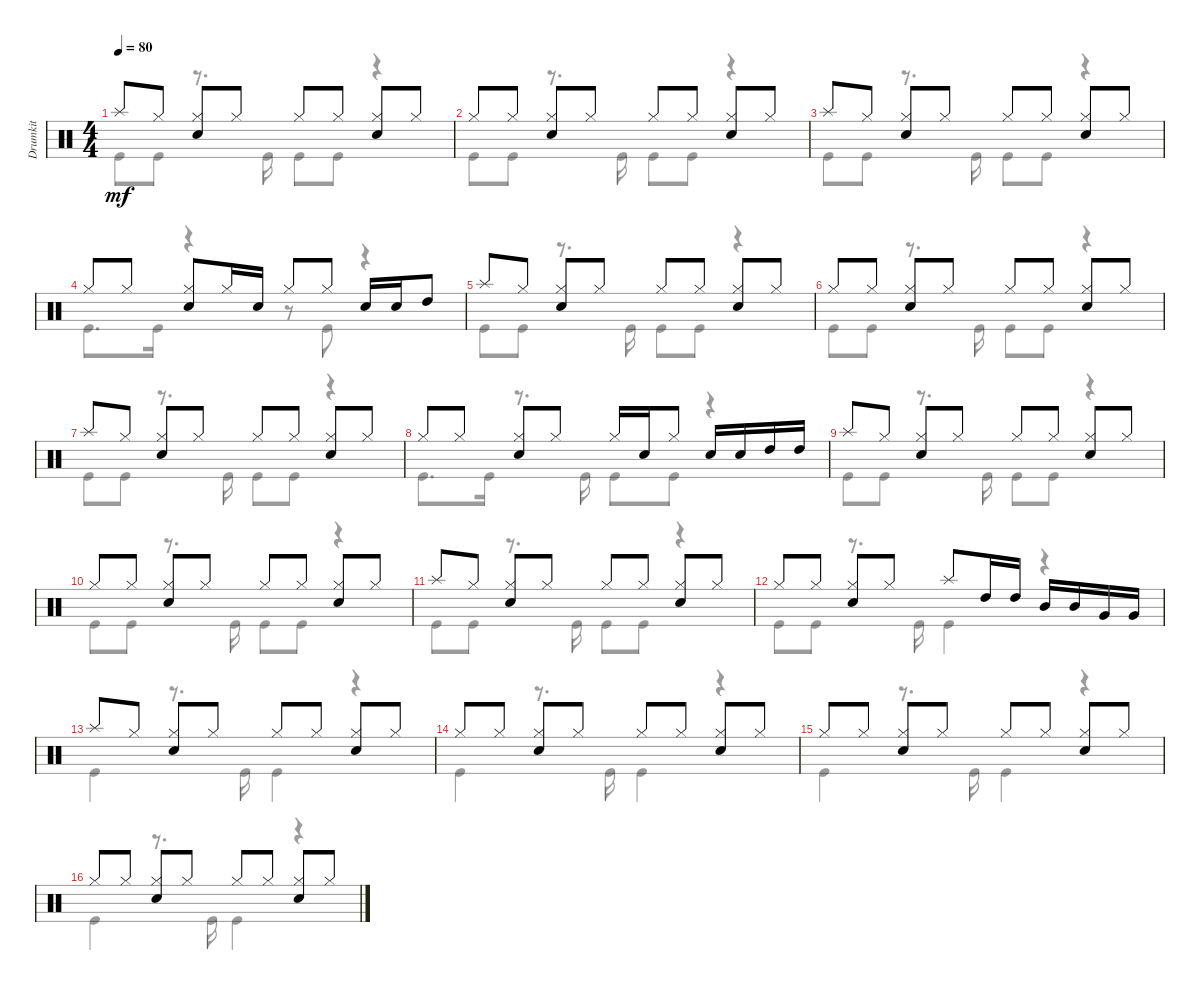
\track ("Drumkit" "Drumkit") {instrument percussion}
\staff {score}
\articulation defaults
\voice
\ts (4 4)
\tempo 80
\clef neutral
\ks c "Splash (hit)"{t}.8{dy mf} "Hi-Hat (closed)".8
("Hi-Hat (closed)" "Snare (hit) 2").8 "Hi-Hat (closed)".8 "Hi-Hat (closed)".8 "Hi-Hat (closed)".8 ("Hi-Hat (closed)" "Snare (hit) 2").8 "Hi-Hat (closed)".8 |
"Hi-Hat (closed)".8 "Hi-Hat (closed)".8 ("Hi-Hat (closed)" "Snare (hit) 2").8 "Hi-Hat (closed)".8 "Hi-Hat (closed)".8 "Hi-Hat (closed)".8 ("Hi-Hat (closed)" "Snare (hit) 2").8 "Hi-Hat (closed)".8 |
"Splash (hit)".8 "Hi-Hat (closed)".8 ("Hi-Hat (closed)" "Snare (hit) 2").8 "Hi-Hat (closed)".8 "Hi-Hat (closed)".8 "Hi-Hat (closed)".8 ("Hi-Hat (closed)" "Snare (hit) 2").8 "Hi-Hat (closed)".8 |
"Hi-Hat (closed)".8 "Hi-Hat (closed)".8 ("Hi-Hat (closed)" "Snare (hit) 2").8 "Hi-Hat (closed)".16 "Snare (hit) 2".16 "Hi-Hat (closed)".8 "Hi-Hat (closed)".8 "Snare (hit) 2".16 "Snare (hit) 2".16 "High Tom (hit)".8 |
"Splash (hit)".8 "Hi-Hat (closed)".8 ("Hi-Hat (closed)" "Snare (hit) 2").8 "Hi-Hat (closed)".8 "Hi-Hat (closed)".8 "Hi-Hat (closed)".8 ("Hi-Hat (closed)" "Snare (hit) 2").8 "Hi-Hat (closed)".8 |
"Hi-Hat (closed)".8 "Hi-Hat (closed)".8 ("Hi-Hat (closed)" "Snare (hit) 2").8 "Hi-Hat (closed)".8 "Hi-Hat (closed)".8 "Hi-Hat (closed)".8 ("Hi-Hat (closed)" "Snare (hit) 2").8 "Hi-Hat (closed)".8 |
"Splash (hit)".8 "Hi-Hat (closed)".8 ("Hi-Hat (closed)" "Snare (hit) 2").8 "Hi-Hat (closed)".8 "Hi-Hat (closed)".8 "Hi-Hat (closed)".8 ("Hi-Hat (closed)" "Snare (hit) 2").8 "Hi-Hat (closed)".8 |
"Hi-Hat (closed)".8 "Hi-Hat (closed)".8 ("Hi-Hat (closed)" "Snare (hit) 2").8 "Hi-Hat (closed)".8 "Hi-Hat (closed)".16 "Snare (hit) 2".16 "Hi-Hat (closed)".8 "Snare (hit) 2".16 "Snare (hit) 2".16 "High Tom (hit)".16 "High Tom (hit)".16 |
"Splash (hit)".8 "Hi-Hat (closed)".8 ("Hi-Hat (closed)" "Snare (hit) 2").8 "Hi-Hat (closed)".8 "Hi-Hat (closed)".8 "Hi-Hat (closed)".8 ("Hi-Hat (closed)" "Snare (hit) 2").8 "Hi-Hat (closed)".8 |
"Hi-Hat (closed)".8 "Hi-Hat (closed)".8 ("Hi-Hat (closed)" "Snare (hit) 2").8 "Hi-Hat (closed)".8 "Hi-Hat (closed)".8 "Hi-Hat (closed)".8 ("Hi-Hat (closed)" "Snare (hit) 2").8 "Hi-Hat (closed)".8 |
"Splash (hit)".8 "Hi-Hat (closed)".8 ("Hi-Hat (closed)" "Snare (hit) 2").8 "Hi-Hat (closed)".8 "Hi-Hat (closed)".8 "Hi-Hat (closed)".8 ("Hi-Hat (closed)" "Snare (hit) 2").8 "Hi-Hat (closed)".8 |
"Hi-Hat (closed)".8 "Hi-Hat (closed)".8 ("Hi-Hat (closed)" "Snare (hit) 2").8 "Hi-Hat (closed)".8 "Splash (hit)".8 "High Tom (hit)".16 "High Tom (hit)".16 "Mid Tom (hit)".16 "Mid Tom (hit)".16 "Very Low Tom (hit)".16 "Very Low Tom (hit)".16 |
"Splash (hit)".8 "Hi-Hat (closed)".8 ("Hi-Hat (closed)" "Snare (hit) 2").8 "Hi-Hat (closed)".8 "Hi-Hat (closed)".8 "Hi-Hat (closed)".8 ("Hi-Hat (closed)" "Snare (hit) 2").8 "Hi-Hat (closed)".8 |
"Hi-Hat (closed)".8 "Hi-Hat (closed)".8 ("Hi-Hat (closed)" "Snare (hit) 2").8 "Hi-Hat (closed)".8 "Hi-Hat (closed)".8 "Hi-Hat (closed)".8 ("Hi-Hat (closed)" "Snare (hit) 2").8 "Hi-Hat (closed)".8 |
"Hi-Hat (closed)".8 "Hi-Hat (closed)".8 ("Hi-Hat (closed)" "Snare (hit) 2").8 "Hi-Hat (closed)".8 "Hi-Hat (closed)".8 "Hi-Hat (closed)".8 ("Hi-Hat (closed)" "Snare (hit) 2").8 "Hi-Hat (closed)".8 |
"Hi-Hat (closed)".8 "Hi-Hat (closed)".8 ("Hi-Hat (closed)" "Snare (hit) 2").8 "Hi-Hat (closed)".8 "Hi-Hat (closed)".8 "Hi-Hat (closed)".8 ("Hi-Hat (closed)" "Snare (hit) 2").8 "Hi-Hat (closed)".8
\voice
\clef neutral
\ottava regular
\simile none
\ks c "Kick (hit)".8{dy mf} "Kick (hit)".8
r.8{d} "Kick (hit)".16 "Kick (hit)".8 "Kick (hit)".8 r.4 |
"Kick (hit)".8 "Kick (hit)".8 r.8{d} "Kick (hit)".16 "Kick (hit)".8 "Kick (hit)".8 r.4 |
"Kick (hit)".8 "Kick (hit)".8 r.8{d} "Kick (hit)".16 "Kick (hit)".8 "Kick (hit)".8 r.4 |
"Kick (hit)".8{d} "Kick (hit)".16 r.4 r.8 "Kick (hit)".8 r.4 |
"Kick (hit)".8 "Kick (hit)".8 r.8{d} "Kick (hit)".16 "Kick (hit)".8 "Kick (hit)".8 r.4 |
"Kick (hit)".8 "Kick (hit)".8 r.8{d} "Kick (hit)".16 "Kick (hit)".8 "Kick (hit)".8 r.4 |
"Kick (hit)".8 "Kick (hit)".8 r.8{d} "Kick (hit)".16 "Kick (hit)".8 "Kick (hit)".8 r.4 |
"Kick (hit)".8{d} "Kick (hit)".16 r.8{d} "Kick (hit)".16 "Kick (hit)".8 "Kick (hit)".8 r.4 |
"Kick (hit)".8 "Kick (hit)".8 r.8{d} "Kick (hit)".16 "Kick (hit)".8 "Kick (hit)".8 r.4 |
"Kick (hit)".8 "Kick (hit)".8 r.8{d} "Kick (hit)".16 "Kick (hit)".8 "Kick (hit)".8 r.4 |
"Kick (hit)".8 "Kick (hit)".8 r.8{d} "Kick (hit)".16 "Kick (hit)".8 "Kick (hit)".8 r.4 |
"Kick (hit)".8 "Kick (hit)".8 r.8{d} "Kick (hit)".16 "Kick (hit)".4 r.4 |
"Kick (hit)".4 r.8{d} "Kick (hit)".16 "Kick (hit)".4 r.4 |
"Kick (hit)".4 r.8{d} "Kick (hit)".16 "Kick (hit)".4 r.4 |
"Kick (hit)".4 r.8{d} "Kick (hit)".16 "Kick (hit)".4 r.4 |
"Kick (hit)".4 r.8{d} "Kick (hit)".16 "Kick (hit)".4 r.4
